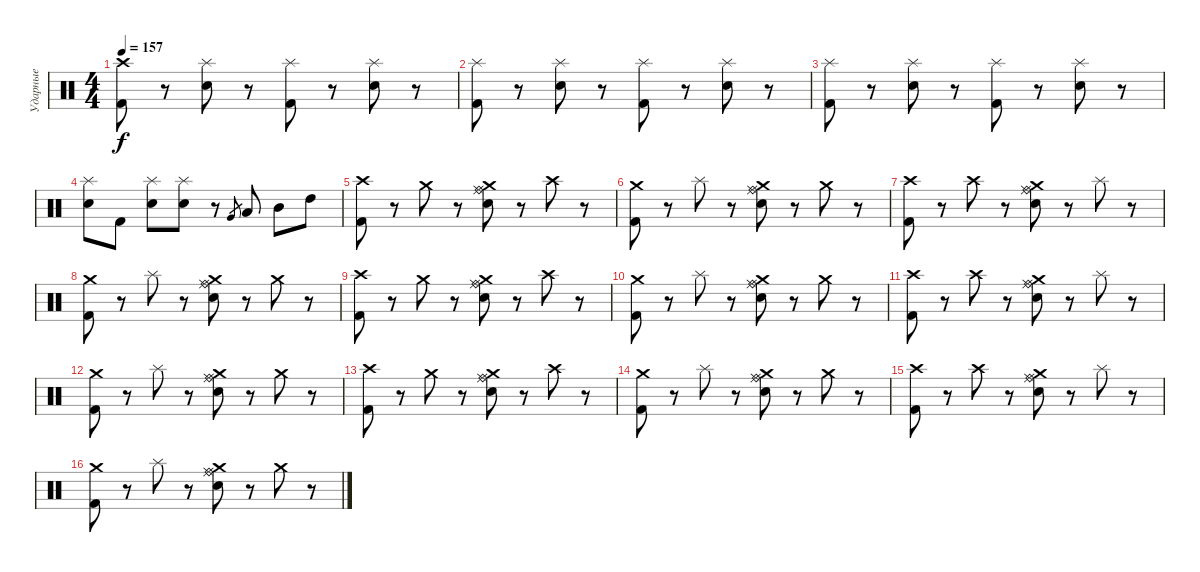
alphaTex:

\track ("Ударные" "Ударные") {instrument percussion}
\staff {score}
\articulation defaults
\ts (4 4)
\tempo 157
\clef neutral
\ks c
("Crash high (hit)" "Kick (hit) 2").8{dy f} r.8 ("Splash (hit)" "Electric Snare (hit)").8 r.8 ("Splash (hit)" "Kick (hit) 2").8 r.8 ("Splash (hit)" "Electric Snare (hit)").8 r.8 |
("Splash (hit)" "Kick (hit) 2").8 r.8 ("Splash (hit)" "Electric Snare (hit)").8 r.8 ("Splash (hit)" "Kick (hit) 2").8 r.8 ("Splash (hit)" "Electric Snare (hit)").8 r.8 |
("Splash (hit)" "Kick (hit) 2").8 r.8 ("Splash (hit)" "Electric Snare (hit)").8 r.8 ("Splash (hit)" "Kick (hit) 2").8 r.8 ("Splash (hit)" "Electric Snare (hit)").8 r.8 |
("Splash (hit)" "Electric Snare (hit)").8 "Kick (hit) 2".8 ("Splash (hit)" "Electric Snare (hit)").8 ("Splash (hit)" "Electric Snare (hit)").8 r.8 "Very Low Tom (hit)".8{gr} "Low Tom (hit)".8 "Mid Tom (hit)".8 "High Tom (hit)".8 |
("Crash high (hit)" "Kick (hit) 2").8 r.8 "Crash medium (hit)".8 r.8 ("Crash medium (hit)" "Ride (bell)" "Electric Snare (hit)" "Ride (middle)").8 r.8 "Crash high (hit)".8 r.8 |
("Crash medium (hit)" "Kick (hit) 2").8 r.8 "Splash (hit)".8 r.8 ("Crash medium (hit)" "Ride (bell)" "Electric Snare (hit)" "Ride (middle)").8 r.8 "Crash medium (hit)".8 r.8 |
("Crash high (hit)" "Kick (hit) 2").8 r.8 "Crash high (hit)".8 r.8 ("Crash medium (hit)" "Ride (bell)" "Electric Snare (hit)" "Ride (middle)").8 r.8 "Splash (hit)".8 r.8 |
("Crash medium (hit)" "Kick (hit) 2").8 r.8 "Splash (hit)".8 r.8 ("Crash medium (hit)" "Ride (bell)" "Electric Snare (hit)" "Ride (middle)").8 r.8 "Crash medium (hit)".8 r.8 |
("Crash high (hit)" "Kick (hit) 2").8 r.8 "Crash medium (hit)".8 r.8 ("Crash medium (hit)" "Ride (bell)" "Electric Snare (hit)" "Ride (middle)").8 r.8 "Crash high (hit)".8 r.8 |
("Crash medium (hit)" "Kick (hit) 2").8 r.8 "Splash (hit)".8 r.8 ("Crash medium (hit)" "Ride (bell)" "Electric Snare (hit)" "Ride (middle)").8 r.8 "Crash medium (hit)".8 r.8 |
("Crash high (hit)" "Kick (hit) 2").8 r.8 "Crash high (hit)".8 r.8 ("Crash medium (hit)" "Ride (bell)" "Electric Snare (hit)" "Ride (middle)").8 r.8 "Splash (hit)".8 r.8 |
("Crash medium (hit)" "Kick (hit) 2").8 r.8 "Splash (hit)".8 r.8 ("Crash medium (hit)" "Ride (bell)" "Electric Snare (hit)" "Ride (middle)").8 r.8 "Crash medium (hit)".8 r.8 |
("Crash high (hit)" "Kick (hit) 2").8 r.8 "Crash medium (hit)".8 r.8 ("Crash medium (hit)" "Ride (bell)" "Electric Snare (hit)" "Ride (middle)").8 r.8 "Crash high (hit)".8 r.8 |
("Crash medium (hit)" "Kick (hit) 2").8 r.8 "Splash (hit)".8 r.8 ("Crash medium (hit)" "Ride (bell)" "Electric Snare (hit)" "Ride (middle)").8 r.8 "Crash medium (hit)".8 r.8 |
("Crash high (hit)" "Kick (hit) 2").8 r.8 "Crash high (hit)".8 r.8 ("Crash medium (hit)" "Ride (bell)" "Electric Snare (hit)" "Ride (middle)").8 r.8 "Splash (hit)".8 r.8 |
("Crash medium (hit)" "Kick (hit) 2").8 r.8 "Splash (hit)".8 r.8 ("Crash medium (hit)" "Ride (bell)" "Electric Snare (hit)" "Ride (middle)").8 r.8 "Crash medium (hit)".8 r.8
